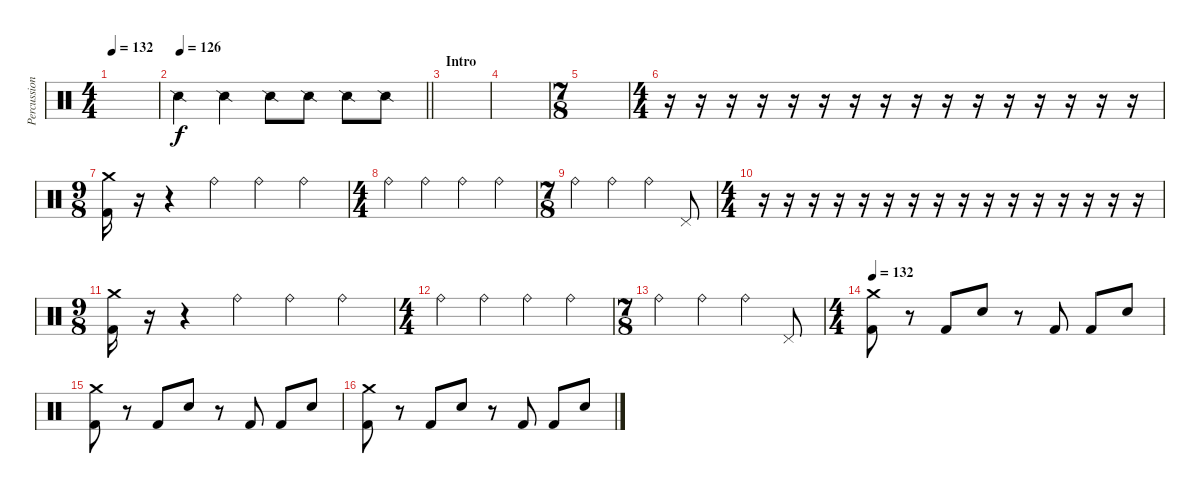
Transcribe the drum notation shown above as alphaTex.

\track ("Percussion" "Percussion") {instrument percussion}
\staff {score}
\articulation defaults
\ts (4 4)
\tempo 132
\clef neutral
\ks c
|
\tempo 126
\barLineRight lightlight "Snare (side stick) 2".4 "Snare (side stick) 2".4 "Snare (side stick) 2".8 "Snare (side stick) 2".8 "Snare (side stick) 2".8 "Snare (side stick) 2".8
|
\section ("" "Intro")
|
|
\ts (7 8)
|
\ts (4 4)
r.16 r.16 r.16 r.16 r.16 r.16 r.16 r.16 r.16 r.16 r.16 r.16 r.16 r.16 r.16 r.16 |
\ts (9 8)
("Crash medium (hit)" "Kick (hit) 2").16 r.16 r.4 "Ride (bell)".4 "Ride (bell)".4 "Ride (bell)".4 |
\ts (4 4)
"Ride (bell)".4 "Ride (bell)".4 "Ride (bell)".4 "Ride (bell)".4 |
\ts (7 8)
"Ride (bell)".4 "Ride (bell)".4 "Ride (bell)".4 "Pedal Hi-Hat (hit)".8 |
\ts (4 4)
r.16 r.16 r.16 r.16 r.16 r.16 r.16 r.16 r.16 r.16 r.16 r.16 r.16 r.16 r.16 r.16 |
\ts (9 8)
("Crash medium (hit)" "Kick (hit) 2").16 r.16 r.4 "Ride (bell)".4 "Ride (bell)".4 "Ride (bell)".4 |
\ts (4 4)
"Ride (bell)".4 "Ride (bell)".4 "Ride (bell)".4 "Ride (bell)".4 |
\ts (7 8)
"Ride (bell)".4 "Ride (bell)".4 "Ride (bell)".4 "Pedal Hi-Hat (hit)".8 |
\ts (4 4)
\tempo 132
("Crash medium (hit)" "Kick (hit) 2").8 r.8 "Kick (hit) 2".8 "Snare (hit) 2".8 r.8 "Kick (hit) 2".8 "Kick (hit) 2".8 "Snare (hit) 2".8 |
("Crash medium (hit)" "Kick (hit) 2").8 r.8 "Kick (hit) 2".8 "Snare (hit) 2".8 r.8 "Kick (hit) 2".8 "Kick (hit) 2".8 "Snare (hit) 2".8 |
("Crash medium (hit)" "Kick (hit) 2").8 r.8 "Kick (hit) 2".8 "Snare (hit) 2".8 r.8 "Kick (hit) 2".8 "Kick (hit) 2".8 "Snare (hit) 2".8
